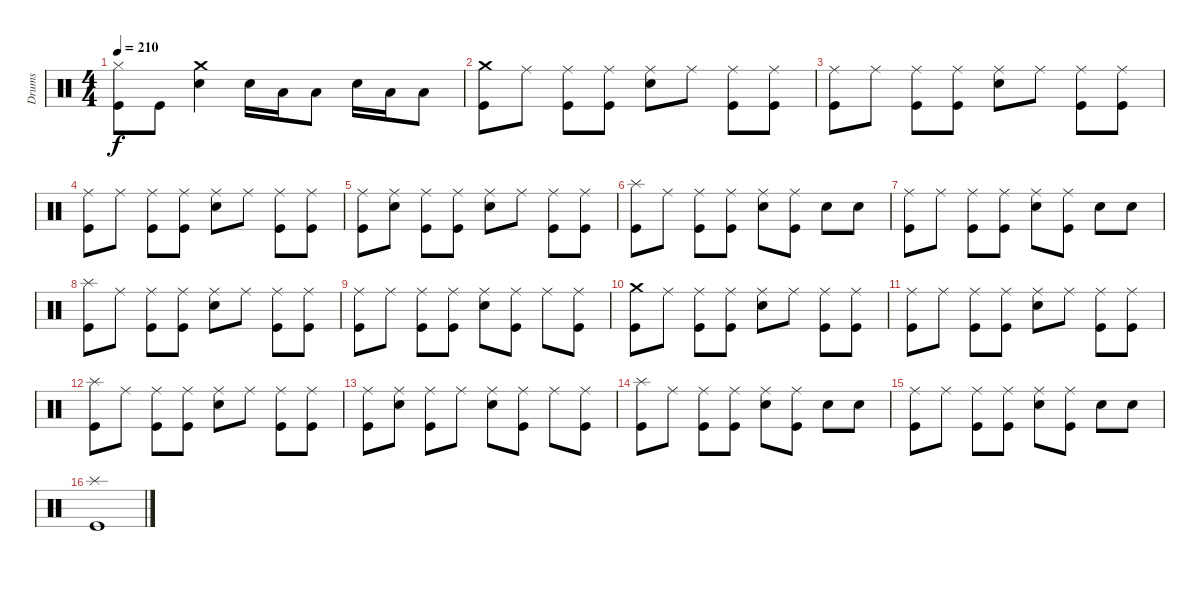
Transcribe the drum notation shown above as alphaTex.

\track ("Drums" "Drums") {instrument percussion}
\staff {score}
\articulation defaults
\ts (4 4)
\tempo 210
\clef neutral
\ks c
("Hi-Hat (closed)" "Kick (hit)").8{dy f} "Kick (hit)".8 ("Crash medium (hit)" "Electric Snare (hit)").4 "Electric Snare (hit)".16 "Low Tom (hit)".16 "Low Tom (hit)".8 "Electric Snare (hit)".16 "Low Tom (hit)".16 "Low Tom (hit)".8 |
("Crash medium (hit)" "Kick (hit)").8 "Ride (middle)".8 ("Ride (middle)" "Kick (hit)").8 ("Ride (middle)" "Kick (hit)").8 ("Ride (middle)" "Electric Snare (hit)").8 "Ride (middle)".8 ("Ride (middle)" "Kick (hit)").8 ("Ride (middle)" "Kick (hit)").8 |
("Ride (middle)" "Kick (hit)").8 "Ride (middle)".8 ("Ride (middle)" "Kick (hit)").8 ("Ride (middle)" "Kick (hit)").8 ("Ride (middle)" "Electric Snare (hit)").8 "Ride (middle)".8 ("Ride (middle)" "Kick (hit)").8 ("Ride (middle)" "Kick (hit)").8 |
("Ride (middle)" "Kick (hit)").8 "Ride (middle)".8 ("Ride (middle)" "Kick (hit)").8 ("Ride (middle)" "Kick (hit)").8 ("Ride (middle)" "Electric Snare (hit)").8 "Ride (middle)".8 ("Ride (middle)" "Kick (hit)").8 ("Ride (middle)" "Kick (hit)").8 |
("Ride (middle)" "Kick (hit)").8 ("Ride (middle)" "Electric Snare (hit)").8 ("Ride (middle)" "Kick (hit)").8 ("Ride (middle)" "Kick (hit)").8 ("Ride (middle)" "Electric Snare (hit)").8 "Ride (middle)".8 ("Ride (middle)" "Kick (hit)").8 ("Ride (middle)" "Kick (hit)").8 |
("Splash (hit)" "Kick (hit)").8 "Ride (middle)".8 ("Ride (middle)" "Kick (hit)").8 ("Ride (middle)" "Kick (hit)").8 ("Ride (middle)" "Electric Snare (hit)").8 ("Ride (middle)" "Kick (hit)").8 "Electric Snare (hit)".8 "Electric Snare (hit)".8 |
("Ride (middle)" "Kick (hit)").8 "Ride (middle)".8 ("Ride (middle)" "Kick (hit)").8 ("Ride (middle)" "Kick (hit)").8 ("Ride (middle)" "Electric Snare (hit)").8 ("Ride (middle)" "Kick (hit)").8 "Electric Snare (hit)".8 "Electric Snare (hit)".8 |
("Splash (hit)" "Kick (hit)").8 "Ride (middle)".8 ("Ride (middle)" "Kick (hit)").8 ("Ride (middle)" "Kick (hit)").8 ("Ride (middle)" "Electric Snare (hit)").8 "Ride (middle)".8 ("Ride (middle)" "Kick (hit)").8 ("Ride (middle)" "Kick (hit)").8 |
("Ride (middle)" "Kick (hit)").8 "Ride (middle)".8 ("Ride (middle)" "Kick (hit)").8 ("Ride (middle)" "Kick (hit)").8 ("Ride (middle)" "Electric Snare (hit)").8 ("Ride (middle)" "Kick (hit)").8 "Ride (middle)".8 ("Ride (middle)" "Kick (hit)").8 |
("Crash medium (hit)" "Kick (hit)").8 "Ride (middle)".8 ("Ride (middle)" "Kick (hit)").8 ("Ride (middle)" "Kick (hit)").8 ("Ride (middle)" "Electric Snare (hit)").8 "Ride (middle)".8 ("Ride (middle)" "Kick (hit)").8 ("Ride (middle)" "Kick (hit)").8 |
("Ride (middle)" "Kick (hit)").8 "Ride (middle)".8 ("Ride (middle)" "Kick (hit)").8 ("Ride (middle)" "Kick (hit)").8 ("Ride (middle)" "Electric Snare (hit)").8 "Ride (middle)".8 ("Ride (middle)" "Kick (hit)").8 ("Ride (middle)" "Kick (hit)").8 |
("Splash (hit)" "Kick (hit)").8 "Ride (middle)".8 ("Ride (middle)" "Kick (hit)").8 ("Ride (middle)" "Kick (hit)").8 ("Ride (middle)" "Electric Snare (hit)").8 "Ride (middle)".8 ("Ride (middle)" "Kick (hit)").8 ("Ride (middle)" "Kick (hit)").8 |
("Ride (middle)" "Kick (hit)").8 ("Ride (middle)" "Electric Snare (hit)").8 ("Ride (middle)" "Kick (hit)").8 "Ride (middle)".8 ("Ride (middle)" "Electric Snare (hit)").8 ("Ride (middle)" "Kick (hit)").8 "Ride (middle)".8 ("Ride (middle)" "Kick (hit)").8 |
("Splash (hit)" "Kick (hit)").8 "Ride (middle)".8 ("Ride (middle)" "Kick (hit)").8 ("Ride (middle)" "Kick (hit)").8 ("Ride (middle)" "Electric Snare (hit)").8 ("Ride (middle)" "Kick (hit)").8 "Electric Snare (hit)".8 "Electric Snare (hit)".8 |
("Ride (middle)" "Kick (hit)").8 "Ride (middle)".8 ("Ride (middle)" "Kick (hit)").8 ("Ride (middle)" "Kick (hit)").8 ("Ride (middle)" "Electric Snare (hit)").8 ("Ride (middle)" "Kick (hit)").8 "Electric Snare (hit)".8 "Electric Snare (hit)".8 |
("Splash (hit)" "Kick (hit)").1
